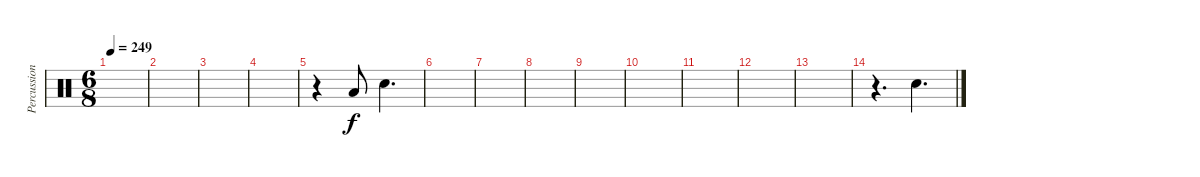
\track ("Percussion" "Percussion") {instrument percussion}
\staff {score}
\articulation defaults
\ts (6 8)
\tempo 249
\clef neutral
\ks c
|
|
|
|
r.4 "Low Tom (hit)".8 "Snare (hit) 2".4{d} |
|
|
|
|
|
|
|
|
r.4{d} "Snare (hit) 2".4{d}
